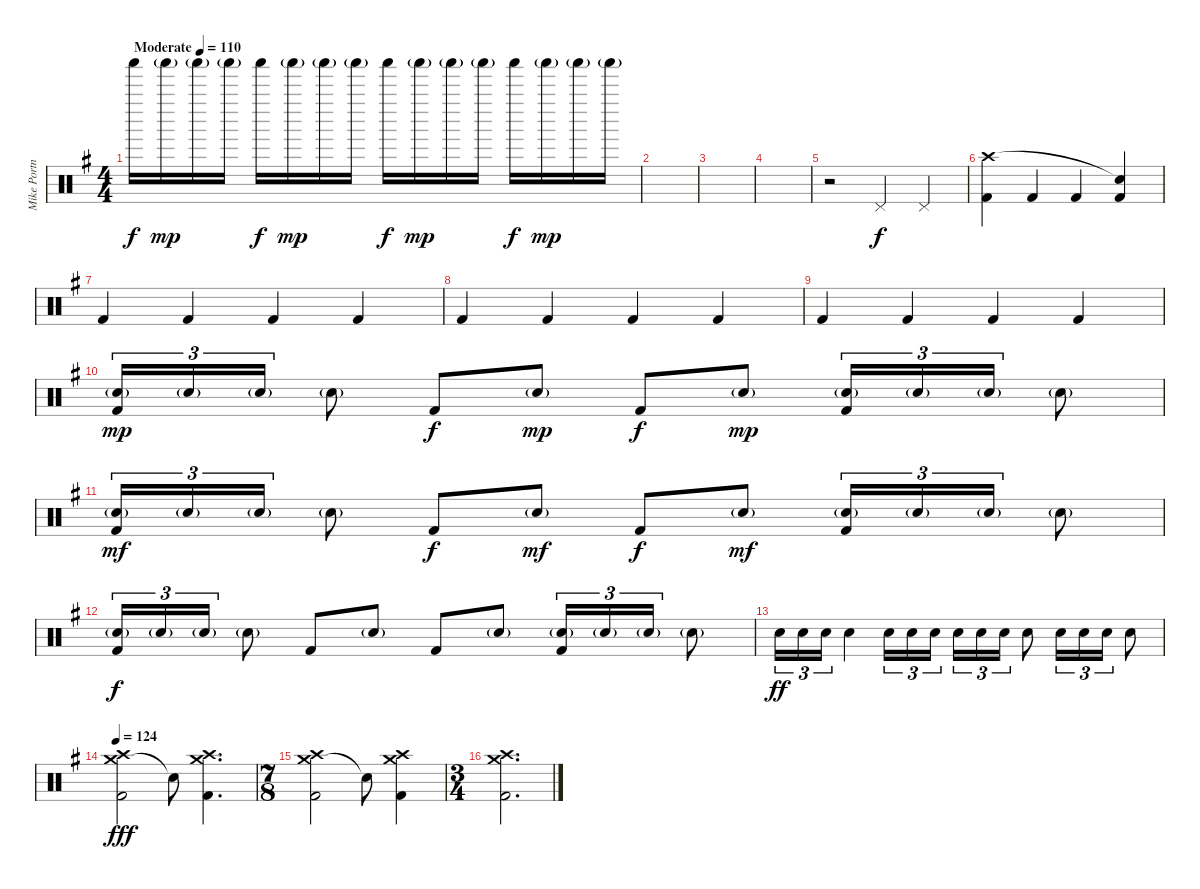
\track ("Mike Portnoy - Drums" "Mike Portn") {instrument percussion}
\staff {score}
\articulation defaults
\ts (4 4)
\tempo (110 "Moderate")
\clef neutral
\ks g "Shaker (hit)".16{dy f volume 13} "Shaker (hit)"{g}.16{dy mp} "Shaker (hit)"{g}.16 "Shaker (hit)"{g}.16 "Shaker (hit)".16{dy f} "Shaker (hit)"{g}.16{dy mp} "Shaker (hit)"{g}.16 "Shaker (hit)"{g}.16 "Shaker (hit)".16{dy f} "Shaker (hit)"{g}.16{dy mp} "Shaker (hit)"{g}.16 "Shaker (hit)"{g}.16 "Shaker (hit)".16{dy f} "Shaker (hit)"{g}.16{dy mp} "Shaker (hit)"{g}.16 "Shaker (hit)"{g}.16
|
|
|
|
r.2 "Pedal Hi-Hat (hit)".4{dy f} "Pedal Hi-Hat (hit)".4 |
("Kick (hit) 2" "Crash high (hit)").4 "Kick (hit) 2".4 "Kick (hit) 2".4 ("Kick (hit) 2" "Snare (hit)"{t}).4 |
"Kick (hit) 2".4 "Kick (hit) 2".4 "Kick (hit) 2".4 "Kick (hit) 2".4 |
"Kick (hit) 2".4 "Kick (hit) 2".4 "Kick (hit) 2".4 "Kick (hit) 2".4 |
"Kick (hit) 2".4 "Kick (hit) 2".4 "Kick (hit) 2".4 "Kick (hit) 2".4 |
("Snare (hit) 2"{g} "Kick (hit) 2").16{tu (3 2) dy mp volume 13} "Snare (hit) 2"{g}.16{tu (3 2)} "Snare (hit) 2"{g}.16{tu (3 2)} "Snare (hit) 2"{g}.8 "Kick (hit) 2".8{dy f} "Snare (hit) 2"{g}.8{dy mp} "Kick (hit) 2".8{dy f} "Snare (hit) 2"{g}.8{dy mp} ("Snare (hit) 2"{g} "Kick (hit) 2").16{tu (3 2)} "Snare (hit) 2"{g}.16{tu (3 2)} "Snare (hit) 2"{g}.16{tu (3 2)} "Snare (hit) 2"{g}.8 |
("Snare (hit) 2"{g} "Kick (hit) 2").16{tu (3 2) dy mf} "Snare (hit) 2"{g}.16{tu (3 2)} "Snare (hit) 2"{g}.16{tu (3 2)} "Snare (hit) 2"{g}.8 "Kick (hit) 2".8{dy f} "Snare (hit) 2"{g}.8{dy mf} "Kick (hit) 2".8{dy f} "Snare (hit) 2"{g}.8{dy mf} ("Snare (hit) 2"{g} "Kick (hit) 2").16{tu (3 2)} "Snare (hit) 2"{g}.16{tu (3 2)} "Snare (hit) 2"{g}.16{tu (3 2)} "Snare (hit) 2"{g}.8 |
("Snare (hit) 2"{g} "Kick (hit) 2").16{tu (3 2) dy f} "Snare (hit) 2"{g}.16{tu (3 2)} "Snare (hit) 2"{g}.16{tu (3 2)} "Snare (hit) 2"{g}.8 "Kick (hit) 2".8 "Snare (hit) 2"{g}.8 "Kick (hit) 2".8 "Snare (hit) 2"{g}.8 ("Snare (hit) 2"{g} "Kick (hit) 2").16{tu (3 2)} "Snare (hit) 2"{g}.16{tu (3 2)} "Snare (hit) 2"{g}.16{tu (3 2)} "Snare (hit) 2"{g}.8 |
"Snare (hit) 2".16{tu (3 2) dy ff} "Snare (hit) 2".16{tu (3 2)} "Snare (hit) 2".16{tu (3 2)} "Snare (hit) 2".4 "Snare (hit) 2".16{tu (3 2)} "Snare (hit) 2".16{tu (3 2)} "Snare (hit) 2".16{tu (3 2)} "Snare (hit) 2".16{tu (3 2)} "Snare (hit) 2".16{tu (3 2)} "Snare (hit) 2".16{tu (3 2)} "Snare (hit) 2".8 "Snare (hit) 2".16{tu (3 2)} "Snare (hit) 2".16{tu (3 2)} "Snare (hit) 2".16{tu (3 2)} "Snare (hit) 2".8 |
\tempo 124
("Crash medium (hit)" "Crash high (hit)" "Kick (hit) 2").2{dy fff} "Snare (hit)"{t}.8 ("Crash medium (hit)" "Crash high (hit)" "Kick (hit) 2").4{d} |
\ts (7 8)
("Crash medium (hit)" "Crash high (hit)" "Kick (hit) 2").2 "Snare (hit)"{t}.8 ("Crash medium (hit)" "Crash high (hit)" "Kick (hit) 2").4 |
\ts (3 4)
("Crash medium (hit)" "Crash high (hit)" "Kick (hit) 2").2{d}
